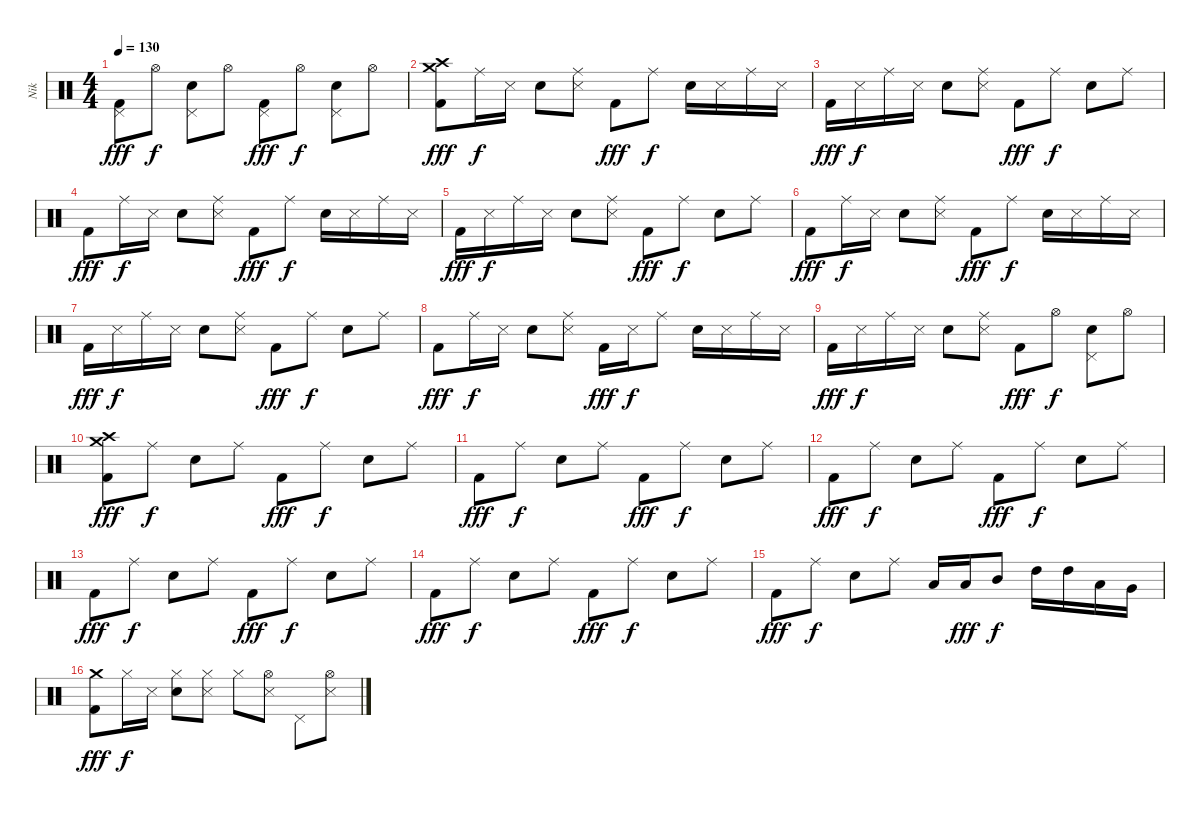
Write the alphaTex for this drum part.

\track ("Nik" "Nik") {instrument percussion}
\staff {score}
\articulation defaults
\ts (4 4)
\tempo 130
\clef neutral
\ks c
("Pedal Hi-Hat (hit)" "Kick (hit) 2").8{dy fff} "Hi-Hat (open)".8{dy f} ("Pedal Hi-Hat (hit)" "Electric Snare (hit)").8 "Hi-Hat (open)".8 ("Pedal Hi-Hat (hit)" "Kick (hit) 2").8{dy fff} "Hi-Hat (open)".8{dy f} ("Pedal Hi-Hat (hit)" "Electric Snare (hit)").8 "Hi-Hat (open)".8 |
("Crash high (hit)" "Crash medium (hit)" "Kick (hit) 2").8{dy fff} "Ride (middle)".16{dy f} "Snare (side stick) 3".16 "Electric Snare (hit)".8 ("Ride (middle)" "Snare (side stick) 3").8 "Kick (hit) 2".8{dy fff} "Ride (middle)".8{dy f} "Electric Snare (hit)".16 "Snare (side stick) 3".16 "Ride (middle)".16 "Snare (side stick) 3".16 |
"Kick (hit) 2".16{dy fff} "Snare (side stick) 3".16{dy f} "Ride (middle)".16 "Snare (side stick) 3".16 "Electric Snare (hit)".8 ("Ride (middle)" "Snare (side stick) 3").8 "Kick (hit) 2".8{dy fff} "Ride (middle)".8{dy f} "Electric Snare (hit)".8 "Ride (middle)".8 |
"Kick (hit) 2".8{dy fff} "Ride (middle)".16{dy f} "Snare (side stick) 3".16 "Electric Snare (hit)".8 ("Ride (middle)" "Snare (side stick) 3").8 "Kick (hit) 2".8{dy fff} "Ride (middle)".8{dy f} "Electric Snare (hit)".16 "Snare (side stick) 3".16 "Ride (middle)".16 "Snare (side stick) 3".16 |
"Kick (hit) 2".16{dy fff} "Snare (side stick) 3".16{dy f} "Ride (middle)".16 "Snare (side stick) 3".16 "Electric Snare (hit)".8 ("Ride (middle)" "Snare (side stick) 3").8 "Kick (hit) 2".8{dy fff} "Ride (middle)".8{dy f} "Electric Snare (hit)".8 "Ride (middle)".8 |
"Kick (hit) 2".8{dy fff} "Ride (middle)".16{dy f} "Snare (side stick) 3".16 "Electric Snare (hit)".8 ("Ride (middle)" "Snare (side stick) 3").8 "Kick (hit) 2".8{dy fff} "Ride (middle)".8{dy f} "Electric Snare (hit)".16 "Snare (side stick) 3".16 "Ride (middle)".16 "Snare (side stick) 3".16 |
"Kick (hit) 2".16{dy fff} "Snare (side stick) 3".16{dy f} "Ride (middle)".16 "Snare (side stick) 3".16 "Electric Snare (hit)".8 ("Ride (middle)" "Snare (side stick) 3").8 "Kick (hit) 2".8{dy fff} "Ride (middle)".8{dy f} "Electric Snare (hit)".8 "Ride (middle)".8 |
"Kick (hit) 2".8{dy fff} "Ride (middle)".16{dy f} "Snare (side stick) 3".16 "Electric Snare (hit)".8 ("Ride (middle)" "Snare (side stick) 3").8 "Kick (hit) 2".16{dy fff} "Snare (side stick) 3".16{dy f} "Ride (middle)".8 "Electric Snare (hit)".16 "Snare (side stick) 3".16 "Ride (middle)".16 "Snare (side stick) 3".16 |
"Kick (hit) 2".16{dy fff} "Snare (side stick) 3".16{dy f} "Ride (middle)".16 "Snare (side stick) 3".16 "Electric Snare (hit)".8 ("Ride (middle)" "Snare (side stick) 3").8 "Kick (hit) 2".8{dy fff} "Hi-Hat (open)".8{dy f} ("Pedal Hi-Hat (hit)" "Electric Snare (hit)").8 "Hi-Hat (open)".8 |
("Crash high (hit)" "Crash medium (hit)" "Kick (hit) 2").8{dy fff} "Ride (middle)".8{dy f} "Electric Snare (hit)".8 "Ride (middle)".8 "Kick (hit) 2".8{dy fff} "Ride (middle)".8{dy f} "Electric Snare (hit)".8 "Ride (middle)".8 |
"Kick (hit) 2".8{dy fff} "Ride (middle)".8{dy f} "Electric Snare (hit)".8 "Ride (middle)".8 "Kick (hit) 2".8{dy fff} "Ride (middle)".8{dy f} "Electric Snare (hit)".8 "Ride (middle)".8 |
"Kick (hit) 2".8{dy fff} "Ride (middle)".8{dy f} "Electric Snare (hit)".8 "Ride (middle)".8 "Kick (hit) 2".8{dy fff} "Ride (middle)".8{dy f} "Electric Snare (hit)".8 "Ride (middle)".8 |
"Kick (hit) 2".8{dy fff} "Ride (middle)".8{dy f} "Electric Snare (hit)".8 "Ride (middle)".8 "Kick (hit) 2".8{dy fff} "Ride (middle)".8{dy f} "Electric Snare (hit)".8 "Ride (middle)".8 |
"Kick (hit) 2".8{dy fff} "Ride (middle)".8{dy f} "Electric Snare (hit)".8 "Ride (middle)".8 "Kick (hit) 2".8{dy fff} "Ride (middle)".8{dy f} "Electric Snare (hit)".8 "Ride (middle)".8 |
"Kick (hit) 2".8{dy fff} "Ride (middle)".8{dy f} "Electric Snare (hit)".8 "Ride (middle)".8 "Low Tom (hit)".16 "Low Tom (hit)".16{dy fff} "Mid Tom (hit)".8{dy f} "High Tom (hit)".16 "High Tom (hit)".16 "Low Tom (hit)".16 "Very Low Tom (hit)".16 |
("Crash medium (hit)" "Kick (hit) 2").8{dy fff} "Hi-Hat (closed)".16{dy f} "Snare (side stick) 3".16 ("Hi-Hat (closed)" "Electric Snare (hit)").8 ("Hi-Hat (closed)" "Snare (side stick) 3").8 "Hi-Hat (closed)".8 ("Hi-Hat (open)" "Snare (side stick) 3").8 "Pedal Hi-Hat (hit)".8 ("Hi-Hat (open)" "Snare (side stick) 3").8
